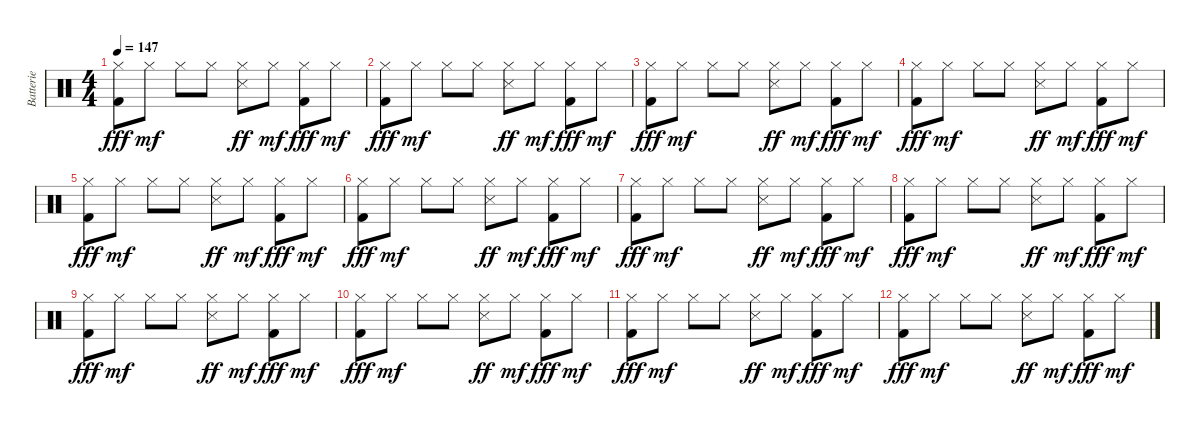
\track ("Batterie" "Batterie") {instrument percussion}
\staff {score}
\articulation defaults
\ts (4 4)
\tempo 147
\clef neutral
\ks c
("Hi-Hat (closed)" "Kick (hit) 2").8{dy fff} "Hi-Hat (closed)".8{dy mf} "Hi-Hat (closed)".8 "Hi-Hat (closed)".8 ("Hi-Hat (closed)" "Snare (side stick) 3").8{dy ff} "Hi-Hat (closed)".8{dy mf} ("Hi-Hat (closed)" "Kick (hit) 2").8{dy fff} "Hi-Hat (closed)".8{dy mf} |
("Hi-Hat (closed)" "Kick (hit) 2").8{dy fff} "Hi-Hat (closed)".8{dy mf} "Hi-Hat (closed)".8 "Hi-Hat (closed)".8 ("Hi-Hat (closed)" "Snare (side stick) 3").8{dy ff} "Hi-Hat (closed)".8{dy mf} ("Hi-Hat (closed)" "Kick (hit) 2").8{dy fff} "Hi-Hat (closed)".8{dy mf} |
("Hi-Hat (closed)" "Kick (hit) 2").8{dy fff} "Hi-Hat (closed)".8{dy mf} "Hi-Hat (closed)".8 "Hi-Hat (closed)".8 ("Hi-Hat (closed)" "Snare (side stick) 3").8{dy ff} "Hi-Hat (closed)".8{dy mf} ("Hi-Hat (closed)" "Kick (hit) 2").8{dy fff} "Hi-Hat (closed)".8{dy mf} |
("Hi-Hat (closed)" "Kick (hit) 2").8{dy fff} "Hi-Hat (closed)".8{dy mf} "Hi-Hat (closed)".8 "Hi-Hat (closed)".8 ("Hi-Hat (closed)" "Snare (side stick) 3").8{dy ff} "Hi-Hat (closed)".8{dy mf} ("Hi-Hat (closed)" "Kick (hit) 2").8{dy fff} "Hi-Hat (closed)".8{dy mf} |
("Hi-Hat (closed)" "Kick (hit) 2").8{dy fff} "Hi-Hat (closed)".8{dy mf} "Hi-Hat (closed)".8 "Hi-Hat (closed)".8 ("Hi-Hat (closed)" "Snare (side stick) 3").8{dy ff} "Hi-Hat (closed)".8{dy mf} ("Hi-Hat (closed)" "Kick (hit) 2").8{dy fff} "Hi-Hat (closed)".8{dy mf} |
("Hi-Hat (closed)" "Kick (hit) 2").8{dy fff} "Hi-Hat (closed)".8{dy mf} "Hi-Hat (closed)".8 "Hi-Hat (closed)".8 ("Hi-Hat (closed)" "Snare (side stick) 3").8{dy ff} "Hi-Hat (closed)".8{dy mf} ("Hi-Hat (closed)" "Kick (hit) 2").8{dy fff} "Hi-Hat (closed)".8{dy mf} |
("Hi-Hat (closed)" "Kick (hit) 2").8{dy fff} "Hi-Hat (closed)".8{dy mf} "Hi-Hat (closed)".8 "Hi-Hat (closed)".8 ("Hi-Hat (closed)" "Snare (side stick) 3").8{dy ff} "Hi-Hat (closed)".8{dy mf} ("Hi-Hat (closed)" "Kick (hit) 2").8{dy fff} "Hi-Hat (closed)".8{dy mf} |
("Hi-Hat (closed)" "Kick (hit) 2").8{dy fff} "Hi-Hat (closed)".8{dy mf} "Hi-Hat (closed)".8 "Hi-Hat (closed)".8 ("Hi-Hat (closed)" "Snare (side stick) 3").8{dy ff} "Hi-Hat (closed)".8{dy mf} ("Hi-Hat (closed)" "Kick (hit) 2").8{dy fff} "Hi-Hat (closed)".8{dy mf} |
("Hi-Hat (closed)" "Kick (hit) 2").8{dy fff} "Hi-Hat (closed)".8{dy mf} "Hi-Hat (closed)".8 "Hi-Hat (closed)".8 ("Hi-Hat (closed)" "Snare (side stick) 3").8{dy ff} "Hi-Hat (closed)".8{dy mf} ("Hi-Hat (closed)" "Kick (hit) 2").8{dy fff} "Hi-Hat (closed)".8{dy mf} |
("Hi-Hat (closed)" "Kick (hit) 2").8{dy fff} "Hi-Hat (closed)".8{dy mf} "Hi-Hat (closed)".8 "Hi-Hat (closed)".8 ("Hi-Hat (closed)" "Snare (side stick) 3").8{dy ff} "Hi-Hat (closed)".8{dy mf} ("Hi-Hat (closed)" "Kick (hit) 2").8{dy fff} "Hi-Hat (closed)".8{dy mf} |
("Hi-Hat (closed)" "Kick (hit) 2").8{dy fff} "Hi-Hat (closed)".8{dy mf} "Hi-Hat (closed)".8 "Hi-Hat (closed)".8 ("Hi-Hat (closed)" "Snare (side stick) 3").8{dy ff} "Hi-Hat (closed)".8{dy mf} ("Hi-Hat (closed)" "Kick (hit) 2").8{dy fff} "Hi-Hat (closed)".8{dy mf} |
("Hi-Hat (closed)" "Kick (hit) 2").8{dy fff} "Hi-Hat (closed)".8{dy mf} "Hi-Hat (closed)".8 "Hi-Hat (closed)".8 ("Hi-Hat (closed)" "Snare (side stick) 3").8{dy ff} "Hi-Hat (closed)".8{dy mf} ("Hi-Hat (closed)" "Kick (hit) 2").8{dy fff} "Hi-Hat (closed)".8{dy mf}
